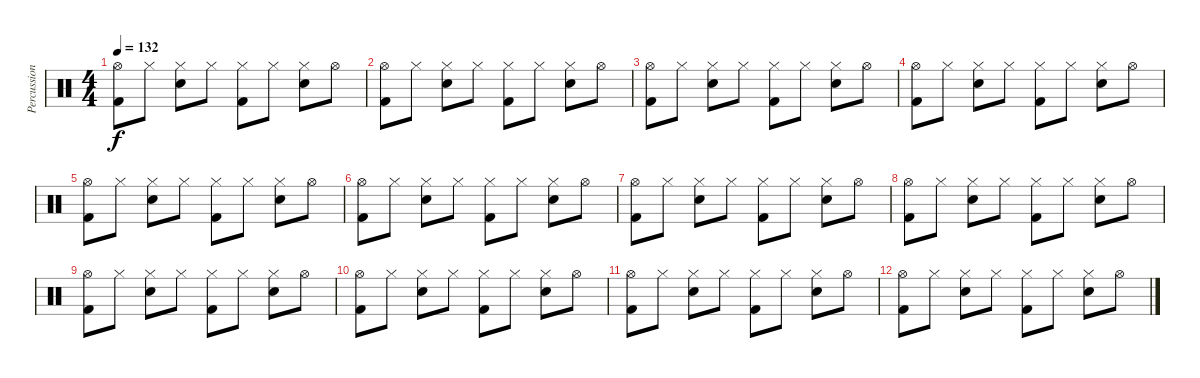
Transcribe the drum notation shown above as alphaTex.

\track ("Percussions" "Percussion") {instrument percussion}
\staff {score}
\articulation defaults
\ts (4 4)
\tempo 132
\clef neutral
\ks c
("Hi-Hat (open)" "Kick (hit) 2").8{dy f} "Hi-Hat (closed)".8 ("Hi-Hat (closed)" "Snare (hit) 2").8 "Hi-Hat (closed)".8 ("Hi-Hat (closed)" "Kick (hit) 2").8 "Hi-Hat (closed)".8 ("Hi-Hat (closed)" "Snare (hit) 2").8 "Hi-Hat (open)".8 |
("Hi-Hat (open)" "Kick (hit) 2").8 "Hi-Hat (closed)".8 ("Hi-Hat (closed)" "Snare (hit) 2").8 "Hi-Hat (closed)".8 ("Hi-Hat (closed)" "Kick (hit) 2").8 "Hi-Hat (closed)".8 ("Hi-Hat (closed)" "Snare (hit) 2").8 "Hi-Hat (open)".8 |
("Hi-Hat (open)" "Kick (hit) 2").8 "Hi-Hat (closed)".8 ("Hi-Hat (closed)" "Snare (hit) 2").8 "Hi-Hat (closed)".8 ("Hi-Hat (closed)" "Kick (hit) 2").8 "Hi-Hat (closed)".8 ("Hi-Hat (closed)" "Snare (hit) 2").8 "Hi-Hat (open)".8 |
("Hi-Hat (open)" "Kick (hit) 2").8 "Hi-Hat (closed)".8 ("Hi-Hat (closed)" "Snare (hit) 2").8 "Hi-Hat (closed)".8 ("Hi-Hat (closed)" "Kick (hit) 2").8 "Hi-Hat (closed)".8 ("Hi-Hat (closed)" "Snare (hit) 2").8 "Hi-Hat (open)".8 |
("Hi-Hat (open)" "Kick (hit) 2").8 "Hi-Hat (closed)".8 ("Hi-Hat (closed)" "Snare (hit) 2").8 "Hi-Hat (closed)".8 ("Hi-Hat (closed)" "Kick (hit) 2").8 "Hi-Hat (closed)".8 ("Hi-Hat (closed)" "Snare (hit) 2").8 "Hi-Hat (open)".8 |
("Hi-Hat (open)" "Kick (hit) 2").8 "Hi-Hat (closed)".8 ("Hi-Hat (closed)" "Snare (hit) 2").8 "Hi-Hat (closed)".8 ("Hi-Hat (closed)" "Kick (hit) 2").8 "Hi-Hat (closed)".8 ("Hi-Hat (closed)" "Snare (hit) 2").8 "Hi-Hat (open)".8 |
("Hi-Hat (open)" "Kick (hit) 2").8 "Hi-Hat (closed)".8 ("Hi-Hat (closed)" "Snare (hit) 2").8 "Hi-Hat (closed)".8 ("Hi-Hat (closed)" "Kick (hit) 2").8 "Hi-Hat (closed)".8 ("Hi-Hat (closed)" "Snare (hit) 2").8 "Hi-Hat (open)".8 |
("Hi-Hat (open)" "Kick (hit) 2").8 "Hi-Hat (closed)".8 ("Hi-Hat (closed)" "Snare (hit) 2").8 "Hi-Hat (closed)".8 ("Hi-Hat (closed)" "Kick (hit) 2").8 "Hi-Hat (closed)".8 ("Hi-Hat (closed)" "Snare (hit) 2").8 "Hi-Hat (open)".8 |
("Hi-Hat (open)" "Kick (hit) 2").8 "Hi-Hat (closed)".8 ("Hi-Hat (closed)" "Snare (hit) 2").8 "Hi-Hat (closed)".8 ("Hi-Hat (closed)" "Kick (hit) 2").8 "Hi-Hat (closed)".8 ("Hi-Hat (closed)" "Snare (hit) 2").8 "Hi-Hat (open)".8 |
("Hi-Hat (open)" "Kick (hit) 2").8 "Hi-Hat (closed)".8 ("Hi-Hat (closed)" "Snare (hit) 2").8 "Hi-Hat (closed)".8 ("Hi-Hat (closed)" "Kick (hit) 2").8 "Hi-Hat (closed)".8 ("Hi-Hat (closed)" "Snare (hit) 2").8 "Hi-Hat (open)".8 |
("Hi-Hat (open)" "Kick (hit) 2").8 "Hi-Hat (closed)".8 ("Hi-Hat (closed)" "Snare (hit) 2").8 "Hi-Hat (closed)".8 ("Hi-Hat (closed)" "Kick (hit) 2").8 "Hi-Hat (closed)".8 ("Hi-Hat (closed)" "Snare (hit) 2").8 "Hi-Hat (open)".8 |
("Hi-Hat (open)" "Kick (hit) 2").8 "Hi-Hat (closed)".8 ("Hi-Hat (closed)" "Snare (hit) 2").8 "Hi-Hat (closed)".8 ("Hi-Hat (closed)" "Kick (hit) 2").8 "Hi-Hat (closed)".8 ("Hi-Hat (closed)" "Snare (hit) 2").8 "Hi-Hat (open)".8
